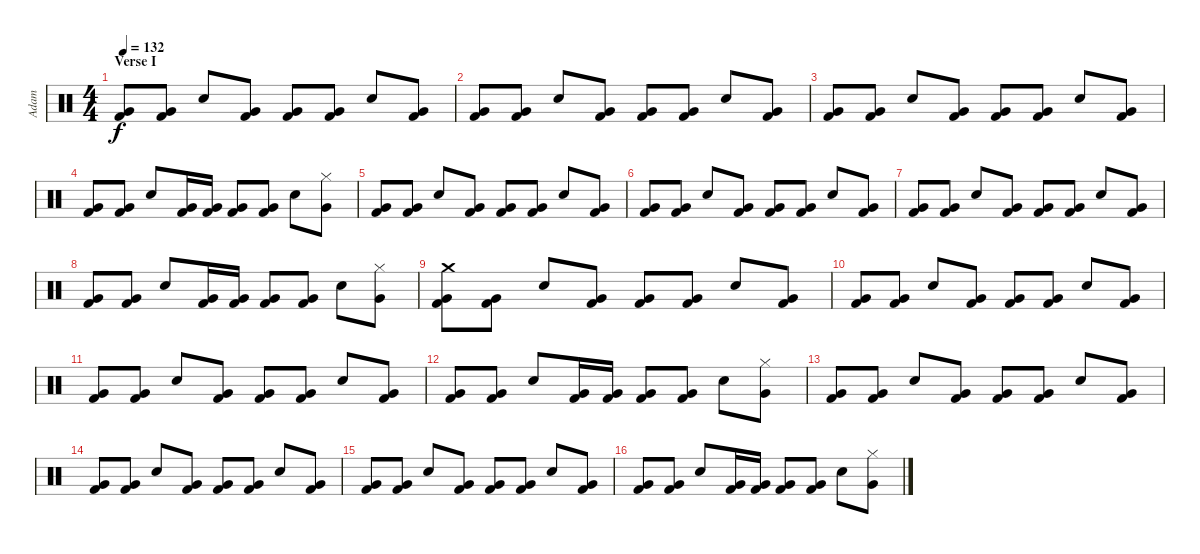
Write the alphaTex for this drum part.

\track ("Adam" "Adam") {instrument percussion}
\staff {score}
\articulation defaults
\ts (4 4)
\section ("" "Verse I")
\tempo 132
\clef neutral
\ks c
("Very Low Tom (hit)" "Kick (hit) 2").8{dy f} ("Very Low Tom (hit)" "Kick (hit) 2").8 "Snare (hit) 2".8 ("Very Low Tom (hit)" "Kick (hit) 2").8 ("Very Low Tom (hit)" "Kick (hit) 2").8 ("Very Low Tom (hit)" "Kick (hit) 2").8 "Snare (hit) 2".8 ("Very Low Tom (hit)" "Kick (hit) 2").8 |
("Very Low Tom (hit)" "Kick (hit) 2").8 ("Very Low Tom (hit)" "Kick (hit) 2").8 "Snare (hit) 2".8 ("Very Low Tom (hit)" "Kick (hit) 2").8 ("Very Low Tom (hit)" "Kick (hit) 2").8 ("Very Low Tom (hit)" "Kick (hit) 2").8 "Snare (hit) 2".8 ("Very Low Tom (hit)" "Kick (hit) 2").8 |
("Very Low Tom (hit)" "Kick (hit) 2").8 ("Very Low Tom (hit)" "Kick (hit) 2").8 "Snare (hit) 2".8 ("Very Low Tom (hit)" "Kick (hit) 2").8 ("Very Low Tom (hit)" "Kick (hit) 2").8 ("Very Low Tom (hit)" "Kick (hit) 2").8 "Snare (hit) 2".8 ("Very Low Tom (hit)" "Kick (hit) 2").8 |
("Very Low Tom (hit)" "Kick (hit) 2").8 ("Very Low Tom (hit)" "Kick (hit) 2").8 "Snare (hit) 2".8 ("Very Low Tom (hit)" "Kick (hit) 2").16 ("Very Low Tom (hit)" "Kick (hit) 2").16 ("Very Low Tom (hit)" "Kick (hit) 2").8 ("Very Low Tom (hit)" "Kick (hit) 2").8 "Snare (hit) 2".8 ("Hi-Hat (closed)" "Very Low Tom (hit)").8 |
("Very Low Tom (hit)" "Kick (hit) 2").8 ("Very Low Tom (hit)" "Kick (hit) 2").8 "Snare (hit) 2".8 ("Very Low Tom (hit)" "Kick (hit) 2").8 ("Very Low Tom (hit)" "Kick (hit) 2").8 ("Very Low Tom (hit)" "Kick (hit) 2").8 "Snare (hit) 2".8 ("Very Low Tom (hit)" "Kick (hit) 2").8 |
("Very Low Tom (hit)" "Kick (hit) 2").8 ("Very Low Tom (hit)" "Kick (hit) 2").8 "Snare (hit) 2".8 ("Very Low Tom (hit)" "Kick (hit) 2").8 ("Very Low Tom (hit)" "Kick (hit) 2").8 ("Very Low Tom (hit)" "Kick (hit) 2").8 "Snare (hit) 2".8 ("Very Low Tom (hit)" "Kick (hit) 2").8 |
("Very Low Tom (hit)" "Kick (hit) 2").8 ("Very Low Tom (hit)" "Kick (hit) 2").8 "Snare (hit) 2".8 ("Very Low Tom (hit)" "Kick (hit) 2").8 ("Very Low Tom (hit)" "Kick (hit) 2").8 ("Very Low Tom (hit)" "Kick (hit) 2").8 "Snare (hit) 2".8 ("Very Low Tom (hit)" "Kick (hit) 2").8 |
("Very Low Tom (hit)" "Kick (hit) 2").8 ("Very Low Tom (hit)" "Kick (hit) 2").8 "Snare (hit) 2".8 ("Very Low Tom (hit)" "Kick (hit) 2").16 ("Very Low Tom (hit)" "Kick (hit) 2").16 ("Very Low Tom (hit)" "Kick (hit) 2").8 ("Very Low Tom (hit)" "Kick (hit) 2").8 "Snare (hit) 2".8 ("Hi-Hat (closed)" "Very Low Tom (hit)").8 |
("Crash medium (hit)" "Very Low Tom (hit)" "Kick (hit) 2").8 ("Very Low Tom (hit)" "Kick (hit) 2").8 "Snare (hit) 2".8 ("Very Low Tom (hit)" "Kick (hit) 2").8 ("Very Low Tom (hit)" "Kick (hit) 2").8 ("Very Low Tom (hit)" "Kick (hit) 2").8 "Snare (hit) 2".8 ("Very Low Tom (hit)" "Kick (hit) 2").8 |
("Very Low Tom (hit)" "Kick (hit) 2").8 ("Very Low Tom (hit)" "Kick (hit) 2").8 "Snare (hit) 2".8 ("Very Low Tom (hit)" "Kick (hit) 2").8 ("Very Low Tom (hit)" "Kick (hit) 2").8 ("Very Low Tom (hit)" "Kick (hit) 2").8 "Snare (hit) 2".8 ("Very Low Tom (hit)" "Kick (hit) 2").8 |
("Very Low Tom (hit)" "Kick (hit) 2").8 ("Very Low Tom (hit)" "Kick (hit) 2").8 "Snare (hit) 2".8 ("Very Low Tom (hit)" "Kick (hit) 2").8 ("Very Low Tom (hit)" "Kick (hit) 2").8 ("Very Low Tom (hit)" "Kick (hit) 2").8 "Snare (hit) 2".8 ("Very Low Tom (hit)" "Kick (hit) 2").8 |
("Very Low Tom (hit)" "Kick (hit) 2").8 ("Very Low Tom (hit)" "Kick (hit) 2").8 "Snare (hit) 2".8 ("Very Low Tom (hit)" "Kick (hit) 2").16 ("Very Low Tom (hit)" "Kick (hit) 2").16 ("Very Low Tom (hit)" "Kick (hit) 2").8 ("Very Low Tom (hit)" "Kick (hit) 2").8 "Snare (hit) 2".8 ("Hi-Hat (closed)" "Very Low Tom (hit)").8 |
("Very Low Tom (hit)" "Kick (hit) 2").8 ("Very Low Tom (hit)" "Kick (hit) 2").8 "Snare (hit) 2".8 ("Very Low Tom (hit)" "Kick (hit) 2").8 ("Very Low Tom (hit)" "Kick (hit) 2").8 ("Very Low Tom (hit)" "Kick (hit) 2").8 "Snare (hit) 2".8 ("Very Low Tom (hit)" "Kick (hit) 2").8 |
("Very Low Tom (hit)" "Kick (hit) 2").8 ("Very Low Tom (hit)" "Kick (hit) 2").8 "Snare (hit) 2".8 ("Very Low Tom (hit)" "Kick (hit) 2").8 ("Very Low Tom (hit)" "Kick (hit) 2").8 ("Very Low Tom (hit)" "Kick (hit) 2").8 "Snare (hit) 2".8 ("Very Low Tom (hit)" "Kick (hit) 2").8 |
("Very Low Tom (hit)" "Kick (hit) 2").8 ("Very Low Tom (hit)" "Kick (hit) 2").8 "Snare (hit) 2".8 ("Very Low Tom (hit)" "Kick (hit) 2").8 ("Very Low Tom (hit)" "Kick (hit) 2").8 ("Very Low Tom (hit)" "Kick (hit) 2").8 "Snare (hit) 2".8 ("Very Low Tom (hit)" "Kick (hit) 2").8 |
("Very Low Tom (hit)" "Kick (hit) 2").8 ("Very Low Tom (hit)" "Kick (hit) 2").8 "Snare (hit) 2".8 ("Very Low Tom (hit)" "Kick (hit) 2").16 ("Very Low Tom (hit)" "Kick (hit) 2").16 ("Very Low Tom (hit)" "Kick (hit) 2").8 ("Very Low Tom (hit)" "Kick (hit) 2").8 "Snare (hit) 2".8 ("Hi-Hat (closed)" "Very Low Tom (hit)").8
